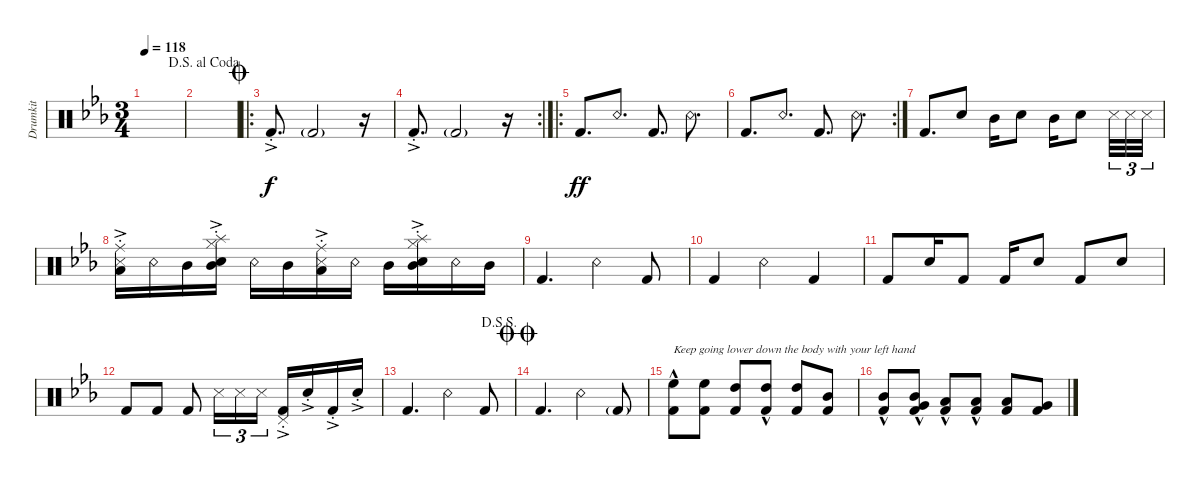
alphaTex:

\track ("Drumkit" "Drumkit") {instrument percussion}
\staff {score}
\articulation defaults
\ts (3 4)
\tempo 118
\clef neutral
\ks cminor
|
\jump dalsegnoalcoda
|
\ro
\jump coda "Kick (hit) 2"{ac st}.8{d dy f} "Kick (hit) 2"{g}.2
r.16 |
\rc 2 "Kick (hit) 2"{ac st}.8{d} "Kick (hit) 2"{g}.2
r.16 |
\ro "Kick (hit) 2".8{d dy ff} "Snare (rim shot)".8{d} "Kick (hit) 2".8{d} "Snare (rim shot)".8{d}
|
\rc 2 "Kick (hit) 2".8{d} "Snare (rim shot)".8{d} "Kick (hit) 2".8{d} "Snare (rim shot)".8{d}
|
"Kick (hit) 2".8{d} "Snare (hit) 2".8 "Mid Tom (hit)".16 "Snare (hit) 2".8 "Mid Tom (hit)".16 "Snare (hit) 2".8 "Snare (side stick) 3".32{tu (3 2)} "Snare (side stick) 3".32{tu (3 2)} "Snare (side stick) 3".32{tu (3 2)} |
("Snare (side stick) 3" "Ride (middle)"{ac st} "Low Tom (hit)").16 "Snare (rim shot)".16 "Mid Tom (hit)".16 ("Hi-Hat (closed)" "Splash (hit)"{ac st} "Snare (hit) 2" "Mid Tom (hit)").16 "Snare (rim shot)".16 "Mid Tom (hit)".16 ("Snare (side stick) 3" "Ride (middle)"{ac st} "Low Tom (hit)").16 "Snare (rim shot)".16 "Mid Tom (hit)".16 ("Hi-Hat (closed)" "Splash (hit)"{ac st} "Snare (hit) 2" "Mid Tom (hit)").16 "Snare (rim shot)".16 "Mid Tom (hit)".16 |
"Kick (hit) 2".4{d} "Snare (rim shot)".4 "Kick (hit) 2".8 |
"Kick (hit) 2".4 "Snare (rim shot)".4 "Kick (hit) 2".4 |
"Kick (hit) 2".8 "Snare (hit) 2".16 "Kick (hit) 2".8 "Kick (hit) 2".16 "Snare (hit) 2".8 "Kick (hit) 2".8 "Snare (hit) 2".8 |
"Kick (hit) 2".8 "Kick (hit) 2".8 "Kick (hit) 2".8 "Snare (side stick) 3".16{tu (3 2)} "Snare (side stick) 3".16{tu (3 2)} "Snare (side stick) 3".16{tu (3 2)} ("Pedal Hi-Hat (hit)"{ac st} "Kick (hit) 2"{ac st}).16 "Snare (hit) 2"{ac st}.16 "Kick (hit) 2"{ac st}.16 "Snare (hit) 2"{ac st}.16 |
\jump dalsegnosegno "Kick (hit) 2".4{d} "Snare (rim shot)".4 "Kick (hit) 2".8
|
\jump doublecoda "Kick (hit) 2".4{d} "Snare (rim shot)".4 "Kick (hit) 2"{g}.8
|
("Kick (hit) 2"{hac} "High Floor Tom (hit)"{hac}).8{txt "Keep going lower down the body with your left hand"} ("Kick (hit) 2" "High Floor Tom (hit)").8 ("Kick (hit) 2" "High Tom (hit)").8 ("Kick (hit) 2"{hac} "High Tom (hit)").8 ("Kick (hit) 2" "High Tom (hit)").8 ("Kick (hit) 2" "Mid Tom (hit)").8 |
("Kick (hit) 2"{hac} "Mid Tom (hit)").8 ("Kick (hit) 2" "Very Low Tom (hit)"{hac} "Mid Tom (hit)").8 ("Kick (hit) 2"{hac} "Low Tom (hit)").8 ("Kick (hit) 2"{hac} "Low Tom (hit)").8 ("Kick (hit) 2" "Low Tom (hit)").8 ("Kick (hit) 2" "Very Low Tom (hit)").8
